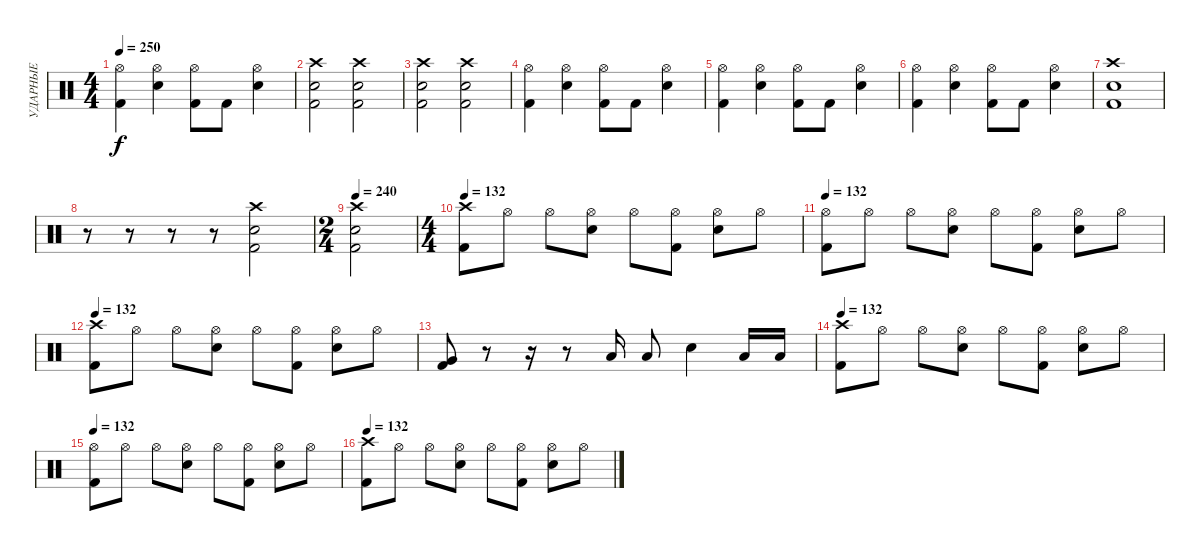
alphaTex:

\track ("УДАРНЫЕ" "УДАРНЫЕ") {instrument percussion}
\staff {score}
\articulation defaults
\ts (4 4)
\tempo 250
\clef neutral
\ks c
("Kick (hit) 2" "Hi-Hat (open)").4{dy f} ("Snare (hit) 2" "Hi-Hat (open)").4 ("Kick (hit) 2" "Hi-Hat (open)").8 "Kick (hit) 2".8 ("Snare (hit) 2" "Hi-Hat (open)").4 |
("Snare (hit) 2" "Crash high (hit)" "Kick (hit) 2").2 ("Snare (hit) 2" "Crash high (hit)" "Kick (hit) 2").2 |
("Snare (hit) 2" "Crash high (hit)" "Kick (hit) 2").2 ("Snare (hit) 2" "Crash high (hit)" "Kick (hit) 2").2 |
("Kick (hit) 2" "Hi-Hat (open)").4 ("Snare (hit) 2" "Hi-Hat (open)").4 ("Kick (hit) 2" "Hi-Hat (open)").8 "Kick (hit) 2".8 ("Snare (hit) 2" "Hi-Hat (open)").4 |
("Kick (hit) 2" "Hi-Hat (open)").4 ("Snare (hit) 2" "Hi-Hat (open)").4 ("Kick (hit) 2" "Hi-Hat (open)").8 "Kick (hit) 2".8 ("Snare (hit) 2" "Hi-Hat (open)").4 |
("Kick (hit) 2" "Hi-Hat (open)").4 ("Snare (hit) 2" "Hi-Hat (open)").4 ("Kick (hit) 2" "Hi-Hat (open)").8 "Kick (hit) 2".8 ("Snare (hit) 2" "Hi-Hat (open)").4 |
("Snare (hit) 2" "Crash high (hit)" "Kick (hit) 2").1 |
r.8 r.8 r.8 r.8 ("Kick (hit) 2" "Crash high (hit)" "Snare (hit) 2").2 |
\ts (2 4)
\tempo 240
("Kick (hit) 2" "Crash high (hit)" "Snare (hit) 2").2 |
\ts (4 4)
\tempo 132
("Kick (hit) 2" "Crash high (hit)").8 "Hi-Hat (open)".8 "Hi-Hat (open)".8 ("Snare (hit) 2" "Hi-Hat (open)").8 "Hi-Hat (open)".8 ("Kick (hit) 2" "Hi-Hat (open)").8 ("Snare (hit) 2" "Hi-Hat (open)").8 "Hi-Hat (open)".8 |
\tempo 132
("Kick (hit) 2" "Hi-Hat (open)").8 "Hi-Hat (open)".8 "Hi-Hat (open)".8 ("Snare (hit) 2" "Hi-Hat (open)").8 "Hi-Hat (open)".8 ("Kick (hit) 2" "Hi-Hat (open)").8 ("Snare (hit) 2" "Hi-Hat (open)").8 "Hi-Hat (open)".8 |
\tempo 132
("Kick (hit) 2" "Crash high (hit)").8 "Hi-Hat (open)".8 "Hi-Hat (open)".8 ("Snare (hit) 2" "Hi-Hat (open)").8 "Hi-Hat (open)".8 ("Kick (hit) 2" "Hi-Hat (open)").8 ("Snare (hit) 2" "Hi-Hat (open)").8 "Hi-Hat (open)".8 |
("Very Low Tom (hit)" "Kick (hit) 2").8 r.8 r.16 r.8 "Low Tom (hit)".16 "Low Tom (hit)".8 "Snare (hit) 2".4 "Low Tom (hit)".16 "Low Tom (hit)".16 |
\tempo 132
("Kick (hit) 2" "Crash high (hit)").8 "Hi-Hat (open)".8 "Hi-Hat (open)".8 ("Snare (hit) 2" "Hi-Hat (open)").8 "Hi-Hat (open)".8 ("Kick (hit) 2" "Hi-Hat (open)").8 ("Snare (hit) 2" "Hi-Hat (open)").8 "Hi-Hat (open)".8 |
\tempo 132
("Kick (hit) 2" "Hi-Hat (open)").8 "Hi-Hat (open)".8 "Hi-Hat (open)".8 ("Snare (hit) 2" "Hi-Hat (open)").8 "Hi-Hat (open)".8 ("Kick (hit) 2" "Hi-Hat (open)").8 ("Snare (hit) 2" "Hi-Hat (open)").8 "Hi-Hat (open)".8 |
\tempo 132
("Kick (hit) 2" "Crash high (hit)").8 "Hi-Hat (open)".8 "Hi-Hat (open)".8 ("Snare (hit) 2" "Hi-Hat (open)").8 "Hi-Hat (open)".8 ("Kick (hit) 2" "Hi-Hat (open)").8 ("Snare (hit) 2" "Hi-Hat (open)").8 "Hi-Hat (open)".8
